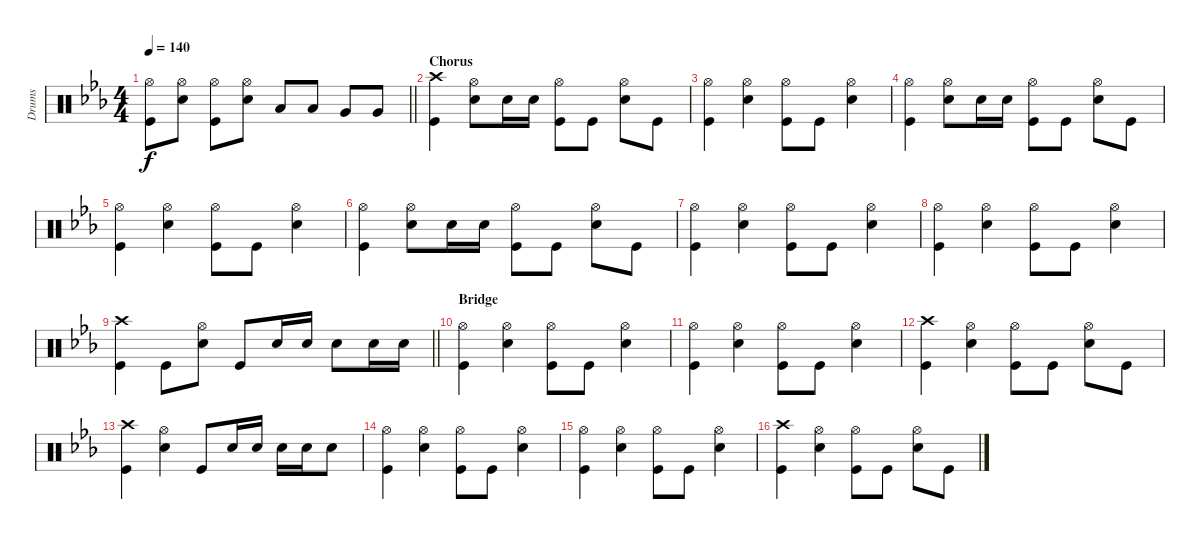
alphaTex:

\track ("Drums" "Drums") {instrument percussion}
\staff {score}
\articulation defaults
\ts (4 4)
\tempo 140
\clef neutral
\barLineRight lightlight
\ks eb
("Hi-Hat (open)" "Kick (hit)").8{dy f} ("Hi-Hat (open)" "Snare (hit) 2").8 ("Hi-Hat (open)" "Kick (hit)").8 ("Hi-Hat (open)" "Snare (hit) 2").8 "Low Tom (hit)".8 "Low Tom (hit)".8 "Very Low Tom (hit)".8 "Very Low Tom (hit)".8 |
\section ("" "Chorus")
("Crash high (hit)" "Kick (hit)").4 ("Hi-Hat (open)" "Snare (hit) 2").8 "Snare (hit) 2".16 "Snare (hit) 2".16 ("Hi-Hat (open)" "Kick (hit)").8 "Kick (hit)".8 ("Hi-Hat (open)" "Snare (hit) 2").8 "Kick (hit)".8 |
("Hi-Hat (open)" "Kick (hit)").4 ("Hi-Hat (open)" "Snare (hit) 2").4 ("Hi-Hat (open)" "Kick (hit)").8 "Kick (hit)".8 ("Hi-Hat (open)" "Snare (hit) 2").4 |
("Hi-Hat (open)" "Kick (hit)").4 ("Hi-Hat (open)" "Snare (hit) 2").8 "Snare (hit) 2".16 "Snare (hit) 2".16 ("Hi-Hat (open)" "Kick (hit)").8 "Kick (hit)".8 ("Hi-Hat (open)" "Snare (hit) 2").8 "Kick (hit)".8 |
("Hi-Hat (open)" "Kick (hit)").4 ("Hi-Hat (open)" "Snare (hit) 2").4 ("Hi-Hat (open)" "Kick (hit)").8 "Kick (hit)".8 ("Hi-Hat (open)" "Snare (hit) 2").4 |
("Hi-Hat (open)" "Kick (hit)").4 ("Hi-Hat (open)" "Snare (hit) 2").8 "Snare (hit) 2".16 "Snare (hit) 2".16 ("Hi-Hat (open)" "Kick (hit)").8 "Kick (hit)".8 ("Hi-Hat (open)" "Snare (hit) 2").8 "Kick (hit)".8 |
("Hi-Hat (open)" "Kick (hit)").4 ("Hi-Hat (open)" "Snare (hit) 2").4 ("Hi-Hat (open)" "Kick (hit)").8 "Kick (hit)".8 ("Hi-Hat (open)" "Snare (hit) 2").4 |
("Hi-Hat (open)" "Kick (hit)").4 ("Hi-Hat (open)" "Snare (hit) 2").4 ("Hi-Hat (open)" "Kick (hit)").8 "Kick (hit)".8 ("Hi-Hat (open)" "Snare (hit) 2").4 |
\barLineRight lightlight
("Crash high (hit)" "Kick (hit)").4 "Kick (hit)".8 ("Hi-Hat (open)" "Snare (hit) 2").8 "Kick (hit)".8 "Snare (hit) 2".16 "Snare (hit) 2".16 "Snare (hit) 2".8 "Snare (hit) 2".16 "Snare (hit) 2".16 |
\section ("" "Bridge")
("Hi-Hat (open)" "Kick (hit)").4 ("Hi-Hat (open)" "Snare (hit) 2").4 ("Hi-Hat (open)" "Kick (hit)").8 "Kick (hit)".8 ("Hi-Hat (open)" "Snare (hit) 2").4 |
("Hi-Hat (open)" "Kick (hit)").4 ("Hi-Hat (open)" "Snare (hit) 2").4 ("Hi-Hat (open)" "Kick (hit)").8 "Kick (hit)".8 ("Hi-Hat (open)" "Snare (hit) 2").4 |
("Crash high (hit)" "Kick (hit)").4 ("Hi-Hat (open)" "Snare (hit) 2").4 ("Hi-Hat (open)" "Kick (hit)").8 "Kick (hit)".8 ("Hi-Hat (open)" "Snare (hit) 2").8 "Kick (hit)".8 |
("Crash high (hit)" "Kick (hit)").4 ("Hi-Hat (open)" "Snare (hit) 2").4 "Kick (hit)".8 "Snare (hit) 2".16 "Snare (hit) 2".16 "Snare (hit) 2".16 "Snare (hit) 2".16 "Snare (hit) 2".8 |
("Hi-Hat (open)" "Kick (hit)").4 ("Hi-Hat (open)" "Snare (hit) 2").4 ("Hi-Hat (open)" "Kick (hit)").8 "Kick (hit)".8 ("Hi-Hat (open)" "Snare (hit) 2").4 |
("Hi-Hat (open)" "Kick (hit)").4 ("Hi-Hat (open)" "Snare (hit) 2").4 ("Hi-Hat (open)" "Kick (hit)").8 "Kick (hit)".8 ("Hi-Hat (open)" "Snare (hit) 2").4 |
("Crash high (hit)" "Kick (hit)").4 ("Hi-Hat (open)" "Snare (hit) 2").4 ("Hi-Hat (open)" "Kick (hit)").8 "Kick (hit)".8 ("Hi-Hat (open)" "Snare (hit) 2").8 "Kick (hit)".8
